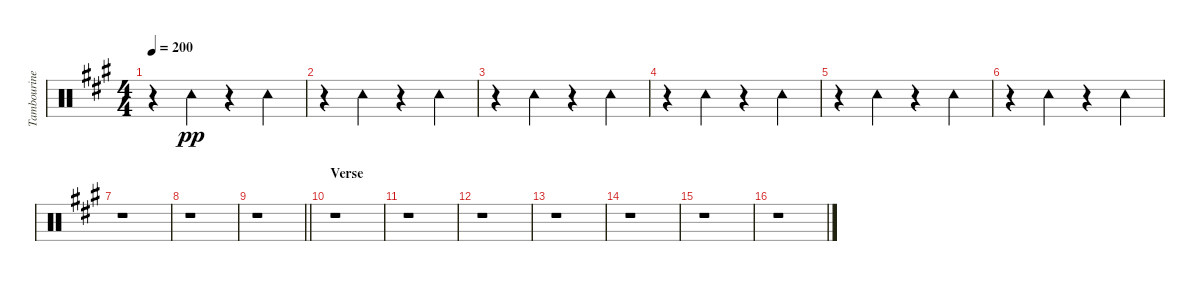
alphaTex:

\track ("Tambourine" "Tambourine") {instrument percussion}
\staff {score}
\articulation defaults
\ts (4 4)
\tempo 200
\clef neutral
\ks a
r.4{dy pp} "Tambourine (hit)".4 r.4 "Tambourine (hit)".4 |
r.4 "Tambourine (hit)".4 r.4 "Tambourine (hit)".4 |
r.4 "Tambourine (hit)".4 r.4 "Tambourine (hit)".4 |
r.4 "Tambourine (hit)".4 r.4 "Tambourine (hit)".4 |
r.4 "Tambourine (hit)".4 r.4 "Tambourine (hit)".4 |
r.4 "Tambourine (hit)".4 r.4 "Tambourine (hit)".4 |
r.1 |
r.1 |
\barLineRight lightlight
r.1 |
\section ("" "Verse")
r.1 |
r.1 |
r.1 |
r.1 |
r.1 |
r.1 |
r.1
